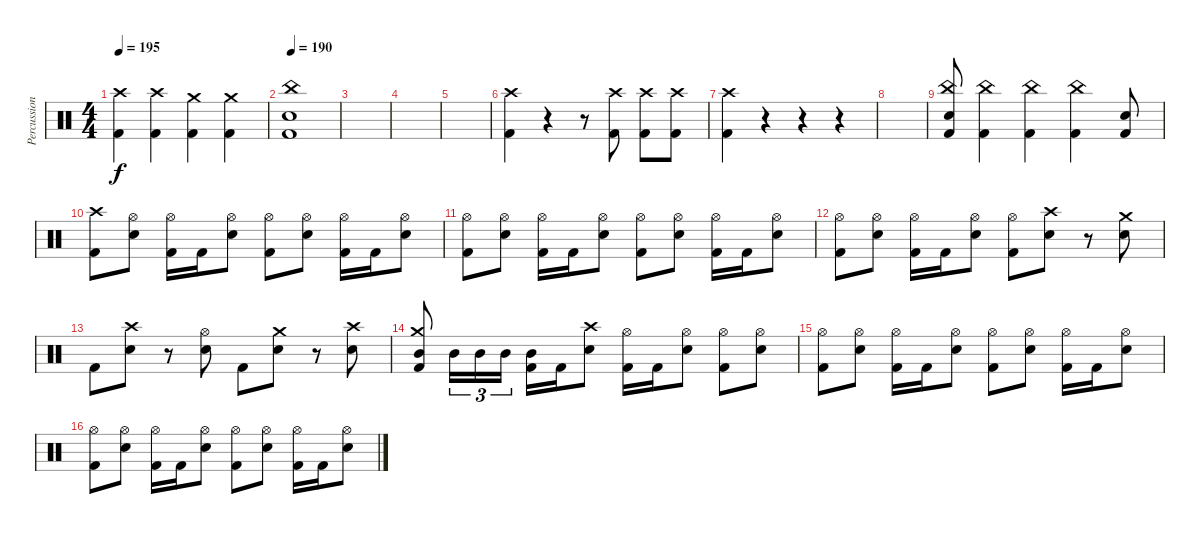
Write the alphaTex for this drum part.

\track ("Percussion" "Percussion") {instrument percussion}
\staff {score}
\articulation defaults
\ts (4 4)
\tempo 195
\tempo 95
\tempo 195
\clef neutral
\ks c
("Crash high (hit)" "Kick (hit) 2").4{dy f} ("Crash high (hit)" "Kick (hit) 2").4 ("Crash medium (hit)" "Kick (hit) 2").4 ("Crash medium (hit)" "Kick (hit) 2").4 |
\tempo 190
("China (hit)" "Snare (hit) 2" "Kick (hit) 2").1 |
|
|
|
("Crash high (hit)" "Kick (hit) 2").4 r.4 r.8 ("Crash high (hit)" "Kick (hit) 2").8 ("Crash high (hit)" "Kick (hit) 2").8 ("Crash high (hit)" "Kick (hit) 2").8 |
("Crash high (hit)" "Kick (hit) 2").4 r.4 r.4 r.4 |
|
("China (hit)" "Snare (hit) 2" "Kick (hit) 2").8 ("China (hit)" "Kick (hit) 2").4 ("China (hit)" "Kick (hit) 2").4 ("China (hit)" "Kick (hit) 2").4 ("Snare (hit) 2" "Kick (hit) 2").8 |
("Crash high (hit)" "Kick (hit) 2").8 ("Hi-Hat (open)" "Snare (hit) 2").8 ("Hi-Hat (open)" "Kick (hit) 2").16 "Kick (hit) 2".16 ("Hi-Hat (open)" "Snare (hit) 2").8 ("Hi-Hat (open)" "Kick (hit) 2").8 ("Hi-Hat (open)" "Snare (hit) 2").8 ("Hi-Hat (open)" "Kick (hit) 2").16 "Kick (hit) 2".16 ("Hi-Hat (open)" "Snare (hit) 2").8 |
("Hi-Hat (open)" "Kick (hit) 2").8 ("Hi-Hat (open)" "Snare (hit) 2").8 ("Hi-Hat (open)" "Kick (hit) 2").16 "Kick (hit) 2".16 ("Hi-Hat (open)" "Snare (hit) 2").8 ("Hi-Hat (open)" "Kick (hit) 2").8 ("Hi-Hat (open)" "Snare (hit) 2").8 ("Hi-Hat (open)" "Kick (hit) 2").16 "Kick (hit) 2".16 ("Hi-Hat (open)" "Snare (hit) 2").8 |
("Hi-Hat (open)" "Kick (hit) 2").8 ("Hi-Hat (open)" "Snare (hit) 2").8 ("Hi-Hat (open)" "Kick (hit) 2").16 "Kick (hit) 2".16 ("Hi-Hat (open)" "Snare (hit) 2").8 ("Hi-Hat (open)" "Kick (hit) 2").8 ("Crash high (hit)" "Snare (hit) 2").8 r.8 ("Crash medium (hit)" "Snare (hit) 2").8 |
"Kick (hit) 2".8 ("Crash high (hit)" "Snare (hit) 2").8 r.8 ("Hi-Hat (open)" "Snare (hit) 2").8 "Kick (hit) 2".8 ("Crash medium (hit)" "Snare (hit) 2").8 r.8 ("Crash high (hit)" "Snare (hit) 2").8 |
("Crash medium (hit)" "Mid Tom (hit)" "Kick (hit) 2").8 "Mid Tom (hit)".16{tu (3 2)} "Mid Tom (hit)".16{tu (3 2)} "Mid Tom (hit)".16{tu (3 2)} ("Mid Tom (hit)" "Kick (hit) 2").16 "Kick (hit) 2".16 ("Crash high (hit)" "Snare (hit) 2").8 ("Hi-Hat (open)" "Kick (hit) 2").16 "Kick (hit) 2".16 ("Hi-Hat (open)" "Snare (hit) 2").8 ("Hi-Hat (open)" "Kick (hit) 2").8 ("Hi-Hat (open)" "Snare (hit) 2").8 |
("Hi-Hat (open)" "Kick (hit) 2").8 ("Hi-Hat (open)" "Snare (hit) 2").8 ("Hi-Hat (open)" "Kick (hit) 2").16 "Kick (hit) 2".16 ("Hi-Hat (open)" "Snare (hit) 2").8 ("Hi-Hat (open)" "Kick (hit) 2").8 ("Hi-Hat (open)" "Snare (hit) 2").8 ("Hi-Hat (open)" "Kick (hit) 2").16 "Kick (hit) 2".16 ("Hi-Hat (open)" "Snare (hit) 2").8 |
("Hi-Hat (open)" "Kick (hit) 2").8 ("Hi-Hat (open)" "Snare (hit) 2").8 ("Hi-Hat (open)" "Kick (hit) 2").16 "Kick (hit) 2".16 ("Hi-Hat (open)" "Snare (hit) 2").8 ("Hi-Hat (open)" "Kick (hit) 2").8 ("Hi-Hat (open)" "Snare (hit) 2").8 ("Hi-Hat (open)" "Kick (hit) 2").16 "Kick (hit) 2".16 ("Hi-Hat (open)" "Snare (hit) 2").8
